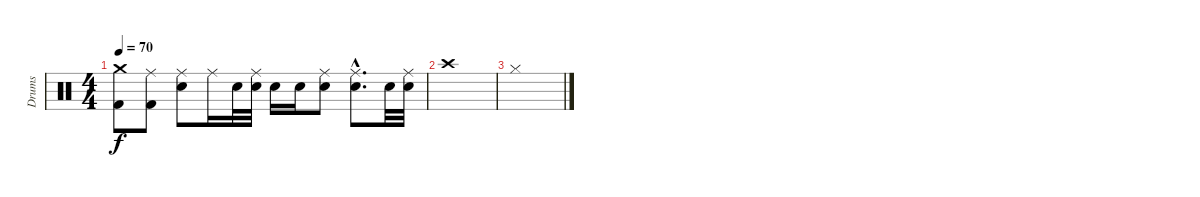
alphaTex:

\track ("Drums" "Drums") {instrument percussion}
\staff {score}
\articulation defaults
\ts (4 4)
\tempo 70
\clef neutral
\ks c
("Crash medium (hit)" "Kick (hit) 2").8{dy f} ("Ride (middle)" "Kick (hit) 2").8 ("Ride (middle)" "Electric Snare (hit)").8 "Ride (middle)".16 "Electric Snare (hit)".32 ("Ride (middle)" "Electric Snare (hit)").32 "Electric Snare (hit)".16 "Electric Snare (hit)".16 ("Ride (middle)" "Electric Snare (hit)").8 ("Ride (middle)"{hac} "Electric Snare (hit)"{hac}).8{d} "Electric Snare (hit)".32 ("Ride (middle)" "Electric Snare (hit)").32 |
"Crash high (hit)".1 |
"Hi-Hat (closed)".1
